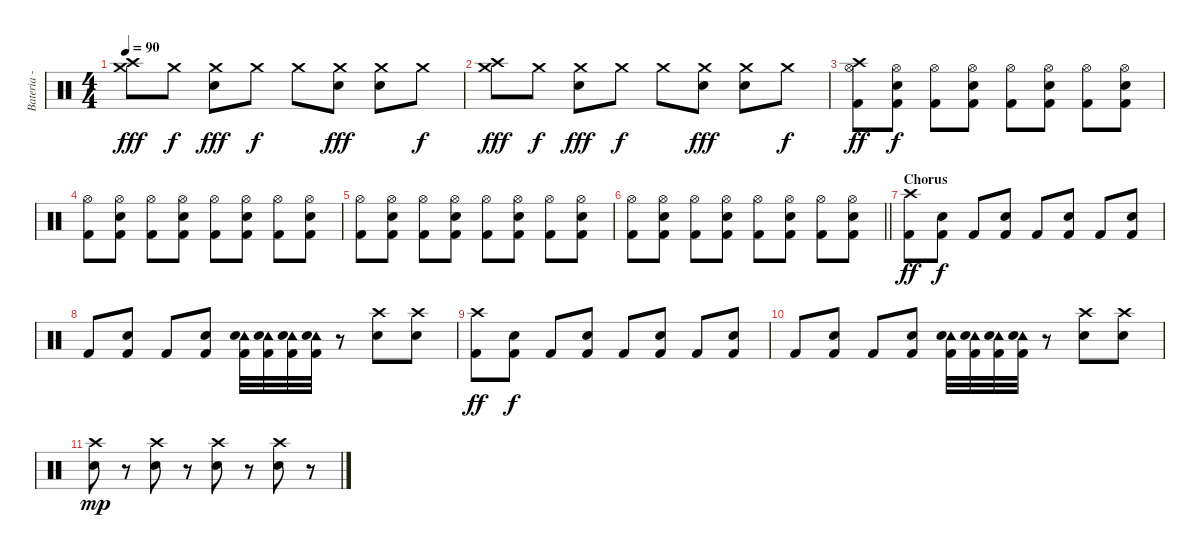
\track ("Bateria - Larzon" "Bateria - ") {instrument percussion}
\staff {score}
\articulation defaults
\ts (4 4)
\tempo 90
\clef neutral
\ks c
("Crash medium (hit)" "Crash high (hit)").8{dy fff} "Crash medium (hit)".8{dy f} ("Crash medium (hit)" "Snare (hit) 2").8{dy fff} "Crash medium (hit)".8{dy f} "Crash medium (hit)".8 ("Crash medium (hit)" "Snare (hit) 2").8{dy fff} ("Crash medium (hit)" "Snare (hit) 2").8 "Crash medium (hit)".8{dy f} |
("Crash medium (hit)" "Crash high (hit)").8{dy fff} "Crash medium (hit)".8{dy f} ("Crash medium (hit)" "Snare (hit) 2").8{dy fff} "Crash medium (hit)".8{dy f} "Crash medium (hit)".8 ("Crash medium (hit)" "Snare (hit) 2").8{dy fff} ("Crash medium (hit)" "Snare (hit) 2").8 "Crash medium (hit)".8{dy f} |
("Kick (hit) 2" "Hi-Hat (open)" "Crash high (hit)").8{dy ff} ("Kick (hit) 2" "Hi-Hat (open)" "Snare (hit) 2").8{dy f} ("Kick (hit) 2" "Hi-Hat (open)").8 ("Kick (hit) 2" "Hi-Hat (open)" "Snare (hit) 2").8 ("Kick (hit) 2" "Hi-Hat (open)").8 ("Kick (hit) 2" "Hi-Hat (open)" "Snare (hit) 2").8 ("Kick (hit) 2" "Hi-Hat (open)").8 ("Kick (hit) 2" "Hi-Hat (open)" "Snare (hit) 2").8 |
("Kick (hit) 2" "Hi-Hat (open)").8 ("Kick (hit) 2" "Hi-Hat (open)" "Snare (hit) 2").8 ("Kick (hit) 2" "Hi-Hat (open)").8 ("Kick (hit) 2" "Hi-Hat (open)" "Snare (hit) 2").8 ("Kick (hit) 2" "Hi-Hat (open)").8 ("Kick (hit) 2" "Hi-Hat (open)" "Snare (hit) 2").8 ("Kick (hit) 2" "Hi-Hat (open)").8 ("Kick (hit) 2" "Hi-Hat (open)" "Snare (hit) 2").8 |
("Kick (hit) 2" "Hi-Hat (open)").8 ("Kick (hit) 2" "Hi-Hat (open)" "Snare (hit) 2").8 ("Kick (hit) 2" "Hi-Hat (open)").8 ("Kick (hit) 2" "Hi-Hat (open)" "Snare (hit) 2").8 ("Kick (hit) 2" "Hi-Hat (open)").8 ("Kick (hit) 2" "Hi-Hat (open)" "Snare (hit) 2").8 ("Kick (hit) 2" "Hi-Hat (open)").8 ("Kick (hit) 2" "Hi-Hat (open)" "Snare (hit) 2").8 |
\barLineRight lightlight
("Kick (hit) 2" "Hi-Hat (open)").8 ("Kick (hit) 2" "Hi-Hat (open)" "Snare (hit) 2").8 ("Kick (hit) 2" "Hi-Hat (open)").8 ("Kick (hit) 2" "Hi-Hat (open)" "Snare (hit) 2").8 ("Kick (hit) 2" "Hi-Hat (open)").8 ("Kick (hit) 2" "Hi-Hat (open)" "Snare (hit) 2").8 ("Kick (hit) 2" "Hi-Hat (open)").8 ("Kick (hit) 2" "Hi-Hat (open)" "Snare (hit) 2").8 |
\section ("" "Chorus")
("Kick (hit) 2" "Crash high (hit)").8{dy ff} ("Kick (hit) 2" "Snare (hit) 2").8{dy f} "Kick (hit) 2".8 ("Kick (hit) 2" "Snare (hit) 2").8 "Kick (hit) 2".8 ("Kick (hit) 2" "Snare (hit) 2").8 "Kick (hit) 2".8 ("Kick (hit) 2" "Snare (hit) 2").8 |
"Kick (hit) 2".8 ("Kick (hit) 2" "Snare (hit) 2").8 "Kick (hit) 2".8 ("Kick (hit) 2" "Snare (hit) 2").8 ("Kick (hit) 2" "Tambourine (hit)" "Snare (hit) 2").32 ("Kick (hit) 2" "Tambourine (hit)" "Snare (hit) 2").32 ("Kick (hit) 2" "Tambourine (hit)" "Snare (hit) 2").32 ("Kick (hit) 2" "Tambourine (hit)" "Snare (hit) 2").32 r.8 ("Snare (hit) 2" "Crash high (hit)").8 ("Snare (hit) 2" "Crash high (hit)").8 |
("Kick (hit) 2" "Crash high (hit)").8{dy ff} ("Kick (hit) 2" "Snare (hit) 2").8{dy f} "Kick (hit) 2".8 ("Kick (hit) 2" "Snare (hit) 2").8 "Kick (hit) 2".8 ("Kick (hit) 2" "Snare (hit) 2").8 "Kick (hit) 2".8 ("Kick (hit) 2" "Snare (hit) 2").8 |
"Kick (hit) 2".8 ("Kick (hit) 2" "Snare (hit) 2").8 "Kick (hit) 2".8 ("Kick (hit) 2" "Snare (hit) 2").8 ("Kick (hit) 2" "Tambourine (hit)" "Snare (hit) 2").32 ("Kick (hit) 2" "Tambourine (hit)" "Snare (hit) 2").32 ("Kick (hit) 2" "Tambourine (hit)" "Snare (hit) 2").32 ("Kick (hit) 2" "Tambourine (hit)" "Snare (hit) 2").32 r.8 ("Snare (hit) 2" "Crash high (hit)").8 ("Snare (hit) 2" "Crash high (hit)").8 |
("Snare (hit) 2" "Crash high (hit)").8{dy mp} r.8 ("Snare (hit) 2" "Crash high (hit)").8 r.8 ("Snare (hit) 2" "Crash high (hit)").8 r.8 ("Snare (hit) 2" "Crash high (hit)").8 r.8
